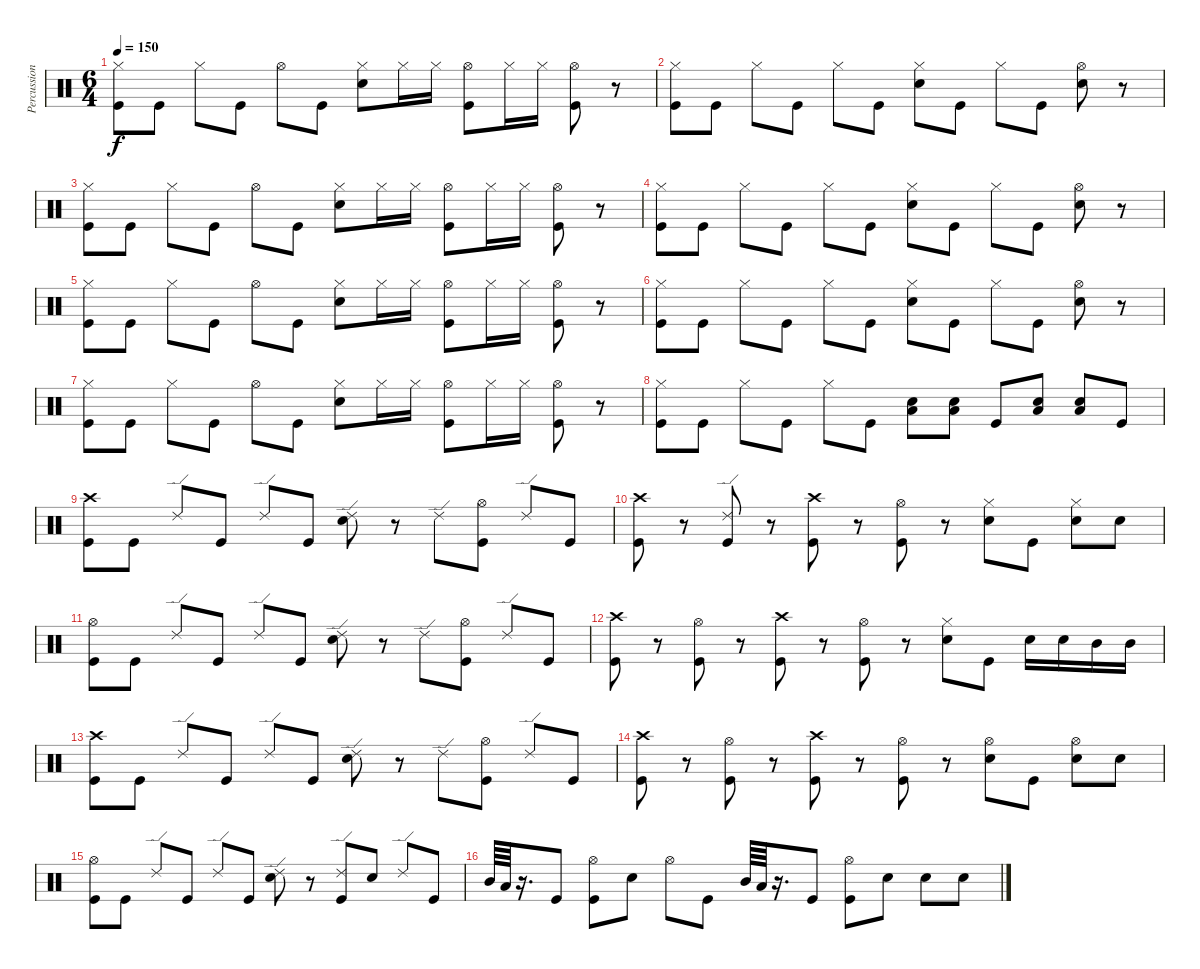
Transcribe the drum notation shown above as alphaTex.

\track ("Percussion" "Percussion") {instrument percussion}
\staff {score}
\articulation defaults
\ts (6 4)
\tempo 150
\clef neutral
\ks c
("Hi-Hat (closed)" "Kick (hit)").8{dy f} "Kick (hit)".8 "Hi-Hat (closed)".8 "Kick (hit)".8 "Hi-Hat (open)".8 "Kick (hit)".8 ("Hi-Hat (closed)" "Snare (hit) 2").8 "Hi-Hat (closed)".16 "Hi-Hat (closed)".16 ("Hi-Hat (open)" "Kick (hit)").8 "Hi-Hat (closed)".16 "Hi-Hat (closed)".16 ("Hi-Hat (open)" "Kick (hit)").8 r.8 |
("Hi-Hat (closed)" "Kick (hit)").8 "Kick (hit)".8 "Hi-Hat (closed)".8 "Kick (hit)".8 "Hi-Hat (closed)".8 "Kick (hit)".8 ("Hi-Hat (closed)" "Snare (hit) 2").8 "Kick (hit)".8 "Hi-Hat (closed)".8 "Kick (hit)".8 ("Hi-Hat (open)" "Snare (hit) 2").8 r.8 |
("Hi-Hat (closed)" "Kick (hit)").8 "Kick (hit)".8 "Hi-Hat (closed)".8 "Kick (hit)".8 "Hi-Hat (open)".8 "Kick (hit)".8 ("Hi-Hat (closed)" "Snare (hit) 2").8 "Hi-Hat (closed)".16 "Hi-Hat (closed)".16 ("Hi-Hat (open)" "Kick (hit)").8 "Hi-Hat (closed)".16 "Hi-Hat (closed)".16 ("Hi-Hat (open)" "Kick (hit)").8 r.8 |
("Hi-Hat (closed)" "Kick (hit)").8 "Kick (hit)".8 "Hi-Hat (closed)".8 "Kick (hit)".8 "Hi-Hat (closed)".8 "Kick (hit)".8 ("Hi-Hat (closed)" "Snare (hit) 2").8 "Kick (hit)".8 "Hi-Hat (closed)".8 "Kick (hit)".8 ("Hi-Hat (open)" "Snare (hit) 2").8 r.8 |
("Hi-Hat (closed)" "Kick (hit)").8 "Kick (hit)".8 "Hi-Hat (closed)".8 "Kick (hit)".8 "Hi-Hat (open)".8 "Kick (hit)".8 ("Hi-Hat (closed)" "Snare (hit) 2").8 "Hi-Hat (closed)".16 "Hi-Hat (closed)".16 ("Hi-Hat (open)" "Kick (hit)").8 "Hi-Hat (closed)".16 "Hi-Hat (closed)".16 ("Hi-Hat (open)" "Kick (hit)").8 r.8 |
("Hi-Hat (closed)" "Kick (hit)").8 "Kick (hit)".8 "Hi-Hat (closed)".8 "Kick (hit)".8 "Hi-Hat (closed)".8 "Kick (hit)".8 ("Hi-Hat (closed)" "Snare (hit) 2").8 "Kick (hit)".8 "Hi-Hat (closed)".8 "Kick (hit)".8 ("Hi-Hat (open)" "Snare (hit) 2").8 r.8 |
("Hi-Hat (closed)" "Kick (hit)").8 "Kick (hit)".8 "Hi-Hat (closed)".8 "Kick (hit)".8 "Hi-Hat (open)".8 "Kick (hit)".8 ("Hi-Hat (closed)" "Snare (hit) 2").8 "Hi-Hat (closed)".16 "Hi-Hat (closed)".16 ("Hi-Hat (open)" "Kick (hit)").8 "Hi-Hat (closed)".16 "Hi-Hat (closed)".16 ("Hi-Hat (open)" "Kick (hit)").8 r.8 |
("Hi-Hat (closed)" "Kick (hit)").8 "Kick (hit)".8 "Hi-Hat (closed)".8 "Kick (hit)".8 "Hi-Hat (closed)".8 "Kick (hit)".8 ("Low Floor Tom (hit)" "Snare (hit) 2").8 ("Low Floor Tom (hit)" "Snare (hit) 2").8 "Kick (hit)".8 ("Low Floor Tom (hit)" "Snare (hit) 2").8 ("Low Floor Tom (hit)" "Snare (hit) 2").8 "Kick (hit)".8 |
("Crash high (hit)" "Kick (hit)").8 "Kick (hit)".8 "Ride (edge) 2".8 "Kick (hit)".8 "Ride (edge) 2".8 "Kick (hit)".8 ("Ride (edge) 2" "Snare (hit) 2").8 r.8 "Ride (edge) 2".8 ("Hi-Hat (open)" "Kick (hit)").8 "Ride (edge) 2".8 "Kick (hit)".8 |
("Crash high (hit)" "Kick (hit)").8 r.8 ("Ride (edge) 2" "Kick (hit)").8 r.8 ("Crash high (hit)" "Kick (hit)").8 r.8 ("Hi-Hat (open)" "Kick (hit)").8 r.8 ("Hi-Hat (closed)" "Snare (hit) 2").8 "Kick (hit)".8 ("Hi-Hat (closed)" "Snare (hit) 2").8 "Snare (hit) 2".8 |
("Hi-Hat (open)" "Kick (hit)").8 "Kick (hit)".8 "Ride (edge) 2".8 "Kick (hit)".8 "Ride (edge) 2".8 "Kick (hit)".8 ("Ride (edge) 2" "Snare (hit) 2").8 r.8 "Ride (edge) 2".8 ("Hi-Hat (open)" "Kick (hit)").8 "Ride (edge) 2".8 "Kick (hit)".8 |
("Crash high (hit)" "Kick (hit)").8 r.8 ("Hi-Hat (open)" "Kick (hit)").8 r.8 ("Crash high (hit)" "Kick (hit)").8 r.8 ("Hi-Hat (open)" "Kick (hit)").8 r.8 ("Hi-Hat (closed)" "Snare (hit) 2").8 "Kick (hit)".8 "Snare (hit) 2".16 "Snare (hit) 2".16 "Mid Tom (hit)".16 "Mid Tom (hit)".16 |
("Crash high (hit)" "Kick (hit)").8 "Kick (hit)".8 "Ride (edge) 2".8 "Kick (hit)".8 "Ride (edge) 2".8 "Kick (hit)".8 ("Ride (edge) 2" "Snare (hit) 2").8 r.8 "Ride (edge) 2".8 ("Hi-Hat (open)" "Kick (hit)").8 "Ride (edge) 2".8 "Kick (hit)".8 |
("Crash high (hit)" "Kick (hit)").8 r.8 ("Hi-Hat (open)" "Kick (hit)").8 r.8 ("Crash high (hit)" "Kick (hit)").8 r.8 ("Hi-Hat (open)" "Kick (hit)").8 r.8 ("Hi-Hat (open)" "Snare (hit) 2").8 "Kick (hit)".8 ("Hi-Hat (open)" "Snare (hit) 2").8 "Snare (hit) 2".8 |
("Hi-Hat (open)" "Kick (hit)").8 "Kick (hit)".8 "Ride (edge) 2".8 "Kick (hit)".8 "Ride (edge) 2".8 "Kick (hit)".8 ("Ride (edge) 2" "Snare (hit) 2").8 r.8 ("Ride (edge) 2" "Kick (hit)").8 "Snare (hit) 2".8 "Ride (edge) 2".8 "Kick (hit)".8 |
"Mid Tom (hit)".64 "Low Tom (hit)".64 r.16{d} "Kick (hit)".8 ("Hi-Hat (open)" "Kick (hit)").8 "Snare (hit) 2".8 "Hi-Hat (open)".8 "Kick (hit)".8 "Mid Tom (hit)".64 "Low Tom (hit)".64 r.16{d} "Kick (hit)".8 ("Hi-Hat (open)" "Kick (hit)").8 "Snare (hit) 2".8 "Snare (hit) 2".8 "Snare (hit) 2".8
